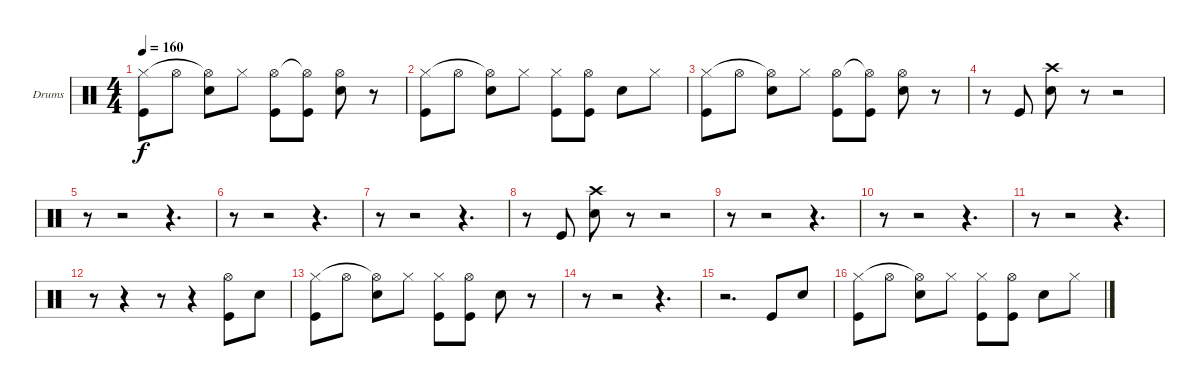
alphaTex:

\bracketExtendMode groupsimilarinstruments
\firstSystemTrackNameOrientation horizontal
\otherSystemsTrackNameOrientation horizontal
\track ("Drumkit" "Drums") {instrument percussion}
\staff {score}
\articulation defaults
\ts (4 4)
\tempo 160
\clef neutral
\ks c
("Kick (hit)" "Hi-Hat (closed)").8{dy f} "Hi-Hat (open)".8 ("Snare (hit) 2" "Hi-Hat (open)"{t}).8 "Hi-Hat (closed)".8 ("Kick (hit)" "Hi-Hat (open)").8 ("Kick (hit)" "Hi-Hat (open)"{t}).8 ("Snare (hit) 2" "Hi-Hat (open)").8 r.8 |
("Kick (hit)" "Hi-Hat (closed)").8 "Hi-Hat (open)".8 ("Snare (hit) 2" "Hi-Hat (open)"{t}).8 "Hi-Hat (closed)".8 ("Kick (hit)" "Hi-Hat (closed)").8 ("Kick (hit)" "Hi-Hat (open)").8 "Snare (hit) 2".8 "Hi-Hat (closed)".8 |
("Kick (hit)" "Hi-Hat (closed)").8 "Hi-Hat (open)".8 ("Snare (hit) 2" "Hi-Hat (open)"{t}).8 "Hi-Hat (closed)".8 ("Kick (hit)" "Hi-Hat (open)").8 ("Kick (hit)" "Hi-Hat (open)"{t}).8 ("Snare (hit) 2" "Hi-Hat (open)").8 r.8 |
r.8 "Kick (hit)".8 ("Snare (hit) 2" "Crash high (hit)").8 r.8 r.2 |
r.8 r.2 r.4{d} |
r.8 r.2 r.4{d} |
r.8 r.2 r.4{d} |
r.8 "Kick (hit)".8 ("Snare (hit) 2" "Crash high (hit)").8 r.8 r.2 |
r.8 r.2 r.4{d} |
r.8 r.2 r.4{d} |
r.8 r.2 r.4{d} |
r.8 r.4 r.8 r.4 ("Kick (hit)" "Hi-Hat (open)").8 "Snare (hit) 2".8 |
("Kick (hit)" "Hi-Hat (closed)").8 "Hi-Hat (open)".8 ("Snare (hit) 2" "Hi-Hat (open)"{t}).8 "Hi-Hat (closed)".8 ("Kick (hit)" "Hi-Hat (closed)").8 ("Kick (hit)" "Hi-Hat (open)").8 "Snare (hit) 2".8 r.8 |
r.8 r.2 r.4{d} |
r.2{d} "Kick (hit)".8 "Snare (hit) 2".8 |
("Kick (hit)" "Hi-Hat (closed)").8 "Hi-Hat (open)".8 ("Snare (hit) 2" "Hi-Hat (open)"{t}).8 "Hi-Hat (closed)".8 ("Kick (hit)" "Hi-Hat (closed)").8 ("Kick (hit)" "Hi-Hat (open)").8 "Snare (hit) 2".8 "Hi-Hat (closed)".8
